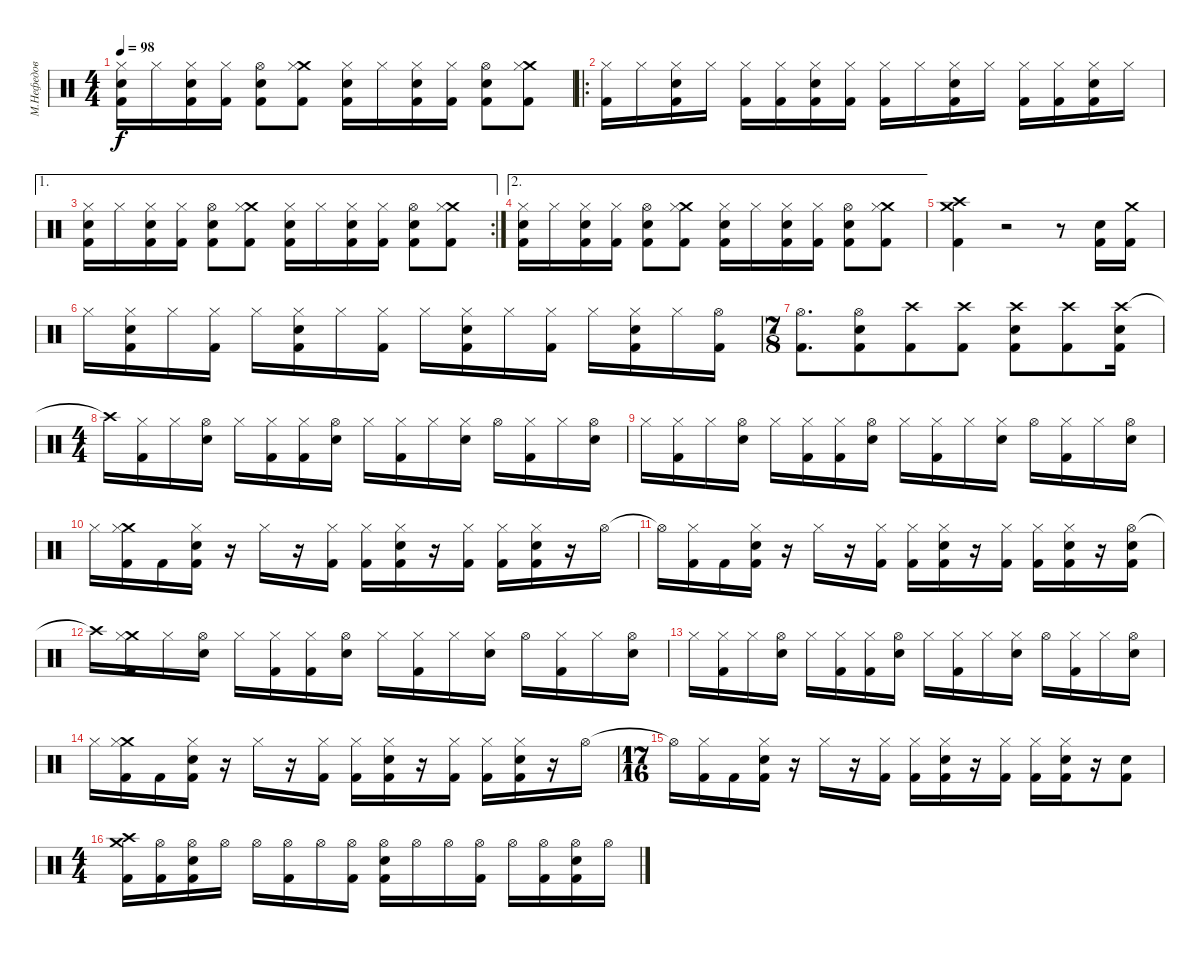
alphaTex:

\track ("М.Нефедов" "М.Нефедов") {instrument percussion}
\staff {score}
\articulation defaults
\ts (4 4)
\tempo 98
\clef neutral
\ks c
("Hi-Hat (closed)" "Snare (hit) 2" "Kick (hit) 2").16{dy f} "Hi-Hat (closed)".16 ("Hi-Hat (closed)" "Snare (hit) 2" "Kick (hit) 2").16 ("Hi-Hat (closed)" "Kick (hit) 2").16 ("Hi-Hat (open)" "Snare (hit) 2" "Kick (hit) 2").8 ("Crash medium (hit)" "Hi-Hat (closed)" "Kick (hit) 2").8 ("Hi-Hat (closed)" "Snare (hit) 2" "Kick (hit) 2").16 "Hi-Hat (closed)".16 ("Hi-Hat (closed)" "Snare (hit) 2" "Kick (hit) 2").16 ("Hi-Hat (closed)" "Kick (hit) 2").16 ("Hi-Hat (open)" "Snare (hit) 2" "Kick (hit) 2").8 ("Crash medium (hit)" "Hi-Hat (closed)" "Kick (hit) 2").8 |
\ro
("Hi-Hat (closed)" "Kick (hit) 2").16 "Hi-Hat (closed)".16 ("Hi-Hat (closed)" "Snare (hit) 2" "Kick (hit) 2").16 "Hi-Hat (closed)".16 ("Hi-Hat (closed)" "Kick (hit) 2").16 ("Hi-Hat (closed)" "Kick (hit) 2").16 ("Hi-Hat (closed)" "Snare (hit) 2" "Kick (hit) 2").16 ("Hi-Hat (closed)" "Kick (hit) 2").16 ("Hi-Hat (closed)" "Kick (hit) 2").16 "Hi-Hat (closed)".16 ("Hi-Hat (closed)" "Snare (hit) 2" "Kick (hit) 2").16 "Hi-Hat (closed)".16 ("Hi-Hat (closed)" "Kick (hit) 2").16 ("Hi-Hat (closed)" "Kick (hit) 2").16 ("Hi-Hat (closed)" "Snare (hit) 2" "Kick (hit) 2").16 "Hi-Hat (closed)".16 |
\ae 1
\rc 2
("Hi-Hat (closed)" "Snare (hit) 2" "Kick (hit) 2").16 "Hi-Hat (closed)".16 ("Hi-Hat (closed)" "Snare (hit) 2" "Kick (hit) 2").16 ("Hi-Hat (closed)" "Kick (hit) 2").16 ("Hi-Hat (open)" "Snare (hit) 2" "Kick (hit) 2").8 ("Crash medium (hit)" "Hi-Hat (closed)" "Kick (hit) 2").8 ("Hi-Hat (closed)" "Snare (hit) 2" "Kick (hit) 2").16 "Hi-Hat (closed)".16 ("Hi-Hat (closed)" "Snare (hit) 2" "Kick (hit) 2").16 ("Hi-Hat (closed)" "Kick (hit) 2").16 ("Hi-Hat (open)" "Snare (hit) 2" "Kick (hit) 2").8 ("Crash medium (hit)" "Hi-Hat (closed)" "Kick (hit) 2").8 |
\ae 2
("Hi-Hat (closed)" "Snare (hit) 2" "Kick (hit) 2").16 "Hi-Hat (closed)".16 ("Hi-Hat (closed)" "Snare (hit) 2" "Kick (hit) 2").16 ("Hi-Hat (closed)" "Kick (hit) 2").16 ("Hi-Hat (open)" "Snare (hit) 2" "Kick (hit) 2").8 ("Crash medium (hit)" "Hi-Hat (closed)" "Kick (hit) 2").8 ("Hi-Hat (closed)" "Snare (hit) 2" "Kick (hit) 2").16 "Hi-Hat (closed)".16 ("Hi-Hat (closed)" "Snare (hit) 2" "Kick (hit) 2").16 ("Hi-Hat (closed)" "Kick (hit) 2").16 ("Hi-Hat (open)" "Snare (hit) 2" "Kick (hit) 2").8 ("Crash medium (hit)" "Hi-Hat (closed)" "Kick (hit) 2").8 |
("Crash medium (hit)" "Crash high (hit)" "Kick (hit) 2").4 r.2 r.8 ("Snare (hit) 2" "Kick (hit) 2").16 ("Crash medium (hit)" "Kick (hit) 2").16 |
"Hi-Hat (closed)".16 ("Hi-Hat (closed)" "Snare (hit) 2" "Kick (hit) 2").16 "Hi-Hat (closed)".16 ("Hi-Hat (closed)" "Kick (hit) 2").16 "Hi-Hat (closed)".16 ("Hi-Hat (closed)" "Snare (hit) 2" "Kick (hit) 2").16 "Hi-Hat (closed)".16 ("Hi-Hat (closed)" "Kick (hit) 2").16 "Hi-Hat (closed)".16 ("Hi-Hat (closed)" "Snare (hit) 2" "Kick (hit) 2").16 "Hi-Hat (closed)".16 ("Hi-Hat (closed)" "Kick (hit) 2").16 "Hi-Hat (closed)".16 ("Hi-Hat (closed)" "Snare (hit) 2" "Kick (hit) 2").16 "Hi-Hat (closed)".16 ("Hi-Hat (open)" "Kick (hit) 2").16 |
\ts (7 8)
("Hi-Hat (open)" "Kick (hit) 2").8{d} ("Hi-Hat (open)" "Snare (hit) 2" "Kick (hit) 2").8 ("Crash high (hit)" "Kick (hit) 2").8 ("Crash high (hit)" "Kick (hit) 2").8 ("Crash high (hit)" "Snare (hit) 2" "Kick (hit) 2").8 ("Crash high (hit)" "Kick (hit) 2").8 ("Crash high (hit)" "Snare (hit) 2" "Kick (hit) 2").16 |
\ts (4 4)
"Crash high (hit)"{t}.16 ("Hi-Hat (closed)" "Kick (hit) 2").16 "Hi-Hat (closed)".16 ("Hi-Hat (open)" "Snare (hit) 2").16 "Hi-Hat (closed)".16 ("Hi-Hat (closed)" "Kick (hit) 2").16 ("Hi-Hat (closed)" "Kick (hit) 2").16 ("Hi-Hat (open)" "Snare (hit) 2").16 "Hi-Hat (closed)".16 ("Hi-Hat (closed)" "Kick (hit) 2").16 "Hi-Hat (closed)".16 ("Hi-Hat (closed)" "Snare (hit) 2").16 "Hi-Hat (open)".16 ("Hi-Hat (closed)" "Kick (hit) 2").16 "Hi-Hat (closed)".16 ("Hi-Hat (open)" "Snare (hit) 2").16 |
"Hi-Hat (closed)".16 ("Hi-Hat (closed)" "Kick (hit) 2").16 "Hi-Hat (closed)".16 ("Hi-Hat (open)" "Snare (hit) 2").16 "Hi-Hat (closed)".16 ("Hi-Hat (closed)" "Kick (hit) 2").16 ("Hi-Hat (closed)" "Kick (hit) 2").16 ("Hi-Hat (open)" "Snare (hit) 2").16 "Hi-Hat (closed)".16 ("Hi-Hat (closed)" "Kick (hit) 2").16 "Hi-Hat (closed)".16 ("Hi-Hat (closed)" "Snare (hit) 2").16 "Hi-Hat (open)".16 ("Hi-Hat (closed)" "Kick (hit) 2").16 "Hi-Hat (closed)".16 ("Hi-Hat (open)" "Snare (hit) 2").16 |
"Hi-Hat (closed)".16 ("Crash medium (hit)" "Hi-Hat (closed)" "Kick (hit) 2").16 "Kick (hit) 2".16 ("Hi-Hat (closed)" "Snare (hit) 2" "Kick (hit) 2").16 r.16 "Hi-Hat (closed)".16 r.16 ("Hi-Hat (closed)" "Kick (hit) 2").16 ("Hi-Hat (closed)" "Kick (hit) 2").16 ("Hi-Hat (closed)" "Snare (hit) 2" "Kick (hit) 2").16 r.16 ("Hi-Hat (closed)" "Kick (hit) 2").16 ("Hi-Hat (closed)" "Kick (hit) 2").16 ("Hi-Hat (closed)" "Snare (hit) 2" "Kick (hit) 2").16 r.16 "Hi-Hat (open)".16 |
"Hi-Hat (open)"{t}.16 ("Hi-Hat (closed)" "Kick (hit) 2").16 "Kick (hit) 2".16 ("Hi-Hat (closed)" "Snare (hit) 2" "Kick (hit) 2").16 r.16 "Hi-Hat (closed)".16 r.16 ("Hi-Hat (closed)" "Kick (hit) 2").16 ("Hi-Hat (closed)" "Kick (hit) 2").16 ("Hi-Hat (closed)" "Snare (hit) 2" "Kick (hit) 2").16 r.16 ("Hi-Hat (closed)" "Kick (hit) 2").16 ("Hi-Hat (closed)" "Kick (hit) 2").16 ("Hi-Hat (closed)" "Snare (hit) 2" "Kick (hit) 2").16 r.16 ("Hi-Hat (open)" "Snare (hit) 2" "Kick (hit) 2").16 |
"Crash high (hit)"{t}.16 ("Crash medium (hit)" "Hi-Hat (closed)" "Kick (hit) 2").16 "Hi-Hat (closed)".16 ("Hi-Hat (open)" "Snare (hit) 2").16 "Hi-Hat (closed)".16 ("Hi-Hat (closed)" "Kick (hit) 2").16 ("Hi-Hat (closed)" "Kick (hit) 2").16 ("Hi-Hat (open)" "Snare (hit) 2").16 "Hi-Hat (closed)".16 ("Hi-Hat (closed)" "Kick (hit) 2").16 "Hi-Hat (closed)".16 ("Hi-Hat (closed)" "Snare (hit) 2").16 "Hi-Hat (open)".16 ("Hi-Hat (closed)" "Kick (hit) 2").16 "Hi-Hat (closed)".16 ("Hi-Hat (open)" "Snare (hit) 2").16 |
"Hi-Hat (closed)".16 ("Hi-Hat (closed)" "Kick (hit) 2").16 "Hi-Hat (closed)".16 ("Hi-Hat (open)" "Snare (hit) 2").16 "Hi-Hat (closed)".16 ("Hi-Hat (closed)" "Kick (hit) 2").16 ("Hi-Hat (closed)" "Kick (hit) 2").16 ("Hi-Hat (open)" "Snare (hit) 2").16 "Hi-Hat (closed)".16 ("Hi-Hat (closed)" "Kick (hit) 2").16 "Hi-Hat (closed)".16 ("Hi-Hat (closed)" "Snare (hit) 2").16 "Hi-Hat (open)".16 ("Hi-Hat (closed)" "Kick (hit) 2").16 "Hi-Hat (closed)".16 ("Hi-Hat (open)" "Snare (hit) 2").16 |
"Hi-Hat (closed)".16 ("Crash medium (hit)" "Hi-Hat (closed)" "Kick (hit) 2").16 "Kick (hit) 2".16 ("Hi-Hat (closed)" "Snare (hit) 2" "Kick (hit) 2").16 r.16 "Hi-Hat (closed)".16 r.16 ("Hi-Hat (closed)" "Kick (hit) 2").16 ("Hi-Hat (closed)" "Kick (hit) 2").16 ("Hi-Hat (closed)" "Snare (hit) 2" "Kick (hit) 2").16 r.16 ("Hi-Hat (closed)" "Kick (hit) 2").16 ("Hi-Hat (closed)" "Kick (hit) 2").16 ("Hi-Hat (closed)" "Snare (hit) 2" "Kick (hit) 2").16 r.16 "Hi-Hat (open)".16 |
\ts (17 16)
"Hi-Hat (open)"{t}.16 ("Hi-Hat (closed)" "Kick (hit) 2").16 "Kick (hit) 2".16 ("Hi-Hat (closed)" "Snare (hit) 2" "Kick (hit) 2").16 r.16 "Hi-Hat (closed)".16 r.16 ("Hi-Hat (closed)" "Kick (hit) 2").16 ("Hi-Hat (closed)" "Kick (hit) 2").16 ("Hi-Hat (closed)" "Snare (hit) 2" "Kick (hit) 2").16 r.16 ("Hi-Hat (closed)" "Kick (hit) 2").16 ("Hi-Hat (closed)" "Kick (hit) 2").16 ("Hi-Hat (closed)" "Snare (hit) 2" "Kick (hit) 2").16 r.16 ("Snare (hit) 2" "Kick (hit) 2").8 |
\ts (4 4)
("Crash medium (hit)" "Crash high (hit)" "Kick (hit) 2").16 ("Hi-Hat (open)" "Kick (hit) 2").16 ("Hi-Hat (open)" "Snare (hit) 2" "Kick (hit) 2").16 "Hi-Hat (open)".16 "Hi-Hat (open)".16 ("Hi-Hat (open)" "Kick (hit) 2").16 "Hi-Hat (open)".16 ("Hi-Hat (open)" "Kick (hit) 2").16 ("Hi-Hat (open)" "Snare (hit) 2" "Kick (hit) 2").16 "Hi-Hat (open)".16 "Hi-Hat (open)".16 ("Hi-Hat (open)" "Kick (hit) 2").16 "Hi-Hat (open)".16 ("Hi-Hat (open)" "Kick (hit) 2").16 ("Hi-Hat (open)" "Snare (hit) 2" "Kick (hit) 2").16 "Hi-Hat (open)".16
